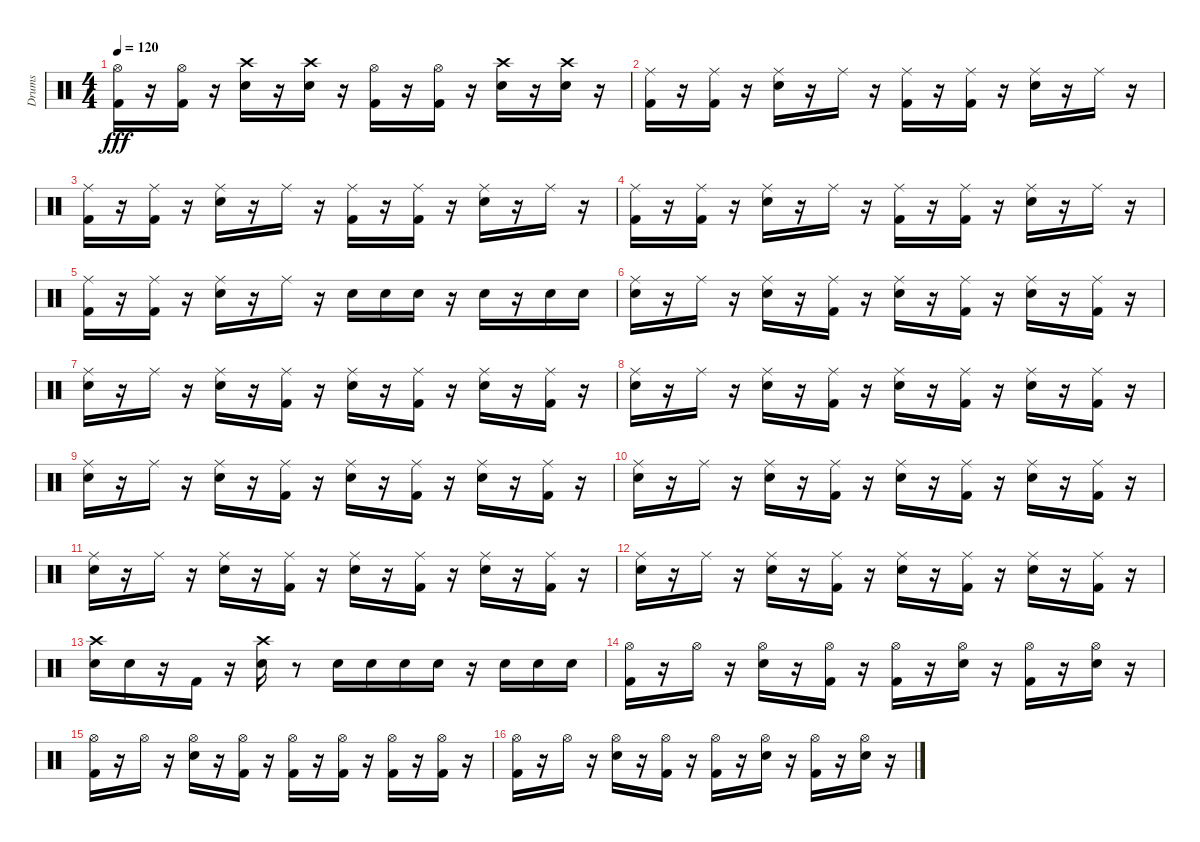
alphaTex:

\track ("Drums" "Drums") {instrument percussion}
\staff {score}
\articulation defaults
\ts (4 4)
\tempo 120
\clef neutral
\ks c
("Kick (hit) 2" "Hi-Hat (open)").16{dy fff} r.16 ("Kick (hit) 2" "Hi-Hat (open)").16 r.16 ("Crash high (hit)" "Snare (hit) 2").16 r.16 ("Crash high (hit)" "Snare (hit) 2").16 r.16 ("Kick (hit) 2" "Hi-Hat (open)").16 r.16 ("Kick (hit) 2" "Hi-Hat (open)").16 r.16 ("Crash high (hit)" "Snare (hit) 2").16 r.16 ("Crash high (hit)" "Snare (hit) 2").16 r.16 |
("Kick (hit) 2" "Ride (middle)").16 r.16 ("Kick (hit) 2" "Ride (middle)").16 r.16 ("Snare (hit) 2" "Ride (middle)").16 r.16 "Ride (middle)".16 r.16 ("Kick (hit) 2" "Ride (middle)").16 r.16 ("Kick (hit) 2" "Ride (middle)").16 r.16 ("Snare (hit) 2" "Ride (middle)").16 r.16 "Ride (middle)".16 r.16 |
("Kick (hit) 2" "Ride (middle)").16 r.16 ("Kick (hit) 2" "Ride (middle)").16 r.16 ("Snare (hit) 2" "Ride (middle)").16 r.16 "Ride (middle)".16 r.16 ("Kick (hit) 2" "Ride (middle)").16 r.16 ("Kick (hit) 2" "Ride (middle)").16 r.16 ("Snare (hit) 2" "Ride (middle)").16 r.16 "Ride (middle)".16 r.16 |
("Kick (hit) 2" "Ride (middle)").16 r.16 ("Kick (hit) 2" "Ride (middle)").16 r.16 ("Snare (hit) 2" "Ride (middle)").16 r.16 "Ride (middle)".16 r.16 ("Kick (hit) 2" "Ride (middle)").16 r.16 ("Kick (hit) 2" "Ride (middle)").16 r.16 ("Snare (hit) 2" "Ride (middle)").16 r.16 "Ride (middle)".16 r.16 |
("Kick (hit) 2" "Ride (middle)").16 r.16 ("Kick (hit) 2" "Ride (middle)").16 r.16 ("Snare (hit) 2" "Ride (middle)").16 r.16 "Ride (middle)".16 r.16 "Snare (hit) 2".16 "Snare (hit) 2".16 "Snare (hit) 2".16 r.16 "Snare (hit) 2".16 r.16 "Snare (hit) 2".16 "Snare (hit) 2".16 |
("Snare (hit) 2" "Ride (middle)").16 r.16 "Ride (middle)".16 r.16 ("Snare (hit) 2" "Ride (middle)").16 r.16 ("Kick (hit) 2" "Ride (middle)").16 r.16 ("Snare (hit) 2" "Ride (middle)").16 r.16 ("Kick (hit) 2" "Ride (middle)").16 r.16 ("Snare (hit) 2" "Ride (middle)").16 r.16 ("Kick (hit) 2" "Ride (middle)").16 r.16 |
("Snare (hit) 2" "Ride (middle)").16 r.16 "Ride (middle)".16 r.16 ("Snare (hit) 2" "Ride (middle)").16 r.16 ("Kick (hit) 2" "Ride (middle)").16 r.16 ("Snare (hit) 2" "Ride (middle)").16 r.16 ("Kick (hit) 2" "Ride (middle)").16 r.16 ("Snare (hit) 2" "Ride (middle)").16 r.16 ("Kick (hit) 2" "Ride (middle)").16 r.16 |
("Snare (hit) 2" "Ride (middle)").16 r.16 "Ride (middle)".16 r.16 ("Snare (hit) 2" "Ride (middle)").16 r.16 ("Kick (hit) 2" "Ride (middle)").16 r.16 ("Snare (hit) 2" "Ride (middle)").16 r.16 ("Kick (hit) 2" "Ride (middle)").16 r.16 ("Snare (hit) 2" "Ride (middle)").16 r.16 ("Kick (hit) 2" "Ride (middle)").16 r.16 |
("Snare (hit) 2" "Ride (middle)").16 r.16 "Ride (middle)".16 r.16 ("Snare (hit) 2" "Ride (middle)").16 r.16 ("Kick (hit) 2" "Ride (middle)").16 r.16 ("Snare (hit) 2" "Ride (middle)").16 r.16 ("Kick (hit) 2" "Ride (middle)").16 r.16 ("Snare (hit) 2" "Ride (middle)").16 r.16 ("Kick (hit) 2" "Ride (middle)").16 r.16 |
("Snare (hit) 2" "Ride (middle)").16 r.16 "Ride (middle)".16 r.16 ("Snare (hit) 2" "Ride (middle)").16 r.16 ("Kick (hit) 2" "Ride (middle)").16 r.16 ("Snare (hit) 2" "Ride (middle)").16 r.16 ("Kick (hit) 2" "Ride (middle)").16 r.16 ("Snare (hit) 2" "Ride (middle)").16 r.16 ("Kick (hit) 2" "Ride (middle)").16 r.16 |
("Snare (hit) 2" "Ride (middle)").16 r.16 "Ride (middle)".16 r.16 ("Snare (hit) 2" "Ride (middle)").16 r.16 ("Kick (hit) 2" "Ride (middle)").16 r.16 ("Snare (hit) 2" "Ride (middle)").16 r.16 ("Kick (hit) 2" "Ride (middle)").16 r.16 ("Snare (hit) 2" "Ride (middle)").16 r.16 ("Kick (hit) 2" "Ride (middle)").16 r.16 |
("Snare (hit) 2" "Ride (middle)").16 r.16 "Ride (middle)".16 r.16 ("Snare (hit) 2" "Ride (middle)").16 r.16 ("Kick (hit) 2" "Ride (middle)").16 r.16 ("Snare (hit) 2" "Ride (middle)").16 r.16 ("Kick (hit) 2" "Ride (middle)").16 r.16 ("Snare (hit) 2" "Ride (middle)").16 r.16 ("Kick (hit) 2" "Ride (middle)").16 r.16 |
("Snare (hit) 2" "Crash high (hit)").16 "Snare (hit) 2".16 r.16 "Kick (hit) 2".16 r.16 ("Snare (hit) 2" "Crash high (hit)").16 r.8 "Snare (hit) 2".16 "Snare (hit) 2".16 "Snare (hit) 2".16 "Snare (hit) 2".16 r.16 "Snare (hit) 2".16 "Snare (hit) 2".16 "Snare (hit) 2".16 |
("Kick (hit) 2" "Hi-Hat (open)").16 r.16 "Hi-Hat (open)".16 r.16 ("Snare (hit) 2" "Hi-Hat (open)").16 r.16 ("Kick (hit) 2" "Hi-Hat (open)").16 r.16 ("Kick (hit) 2" "Hi-Hat (open)").16 r.16 ("Snare (hit) 2" "Hi-Hat (open)").16 r.16 ("Kick (hit) 2" "Hi-Hat (open)").16 r.16 ("Snare (hit) 2" "Hi-Hat (open)").16 r.16 |
("Kick (hit) 2" "Hi-Hat (open)").16 r.16 "Hi-Hat (open)".16 r.16 ("Snare (hit) 2" "Hi-Hat (open)").16 r.16 ("Kick (hit) 2" "Hi-Hat (open)").16 r.16 ("Kick (hit) 2" "Hi-Hat (open)").16 r.16 ("Kick (hit) 2" "Hi-Hat (open)").16 r.16 ("Kick (hit) 2" "Hi-Hat (open)").16 r.16 ("Kick (hit) 2" "Hi-Hat (open)").16 r.16 |
("Kick (hit) 2" "Hi-Hat (open)").16 r.16 "Hi-Hat (open)".16 r.16 ("Snare (hit) 2" "Hi-Hat (open)").16 r.16 ("Kick (hit) 2" "Hi-Hat (open)").16 r.16 ("Kick (hit) 2" "Hi-Hat (open)").16 r.16 ("Snare (hit) 2" "Hi-Hat (open)").16 r.16 ("Kick (hit) 2" "Hi-Hat (open)").16 r.16 ("Snare (hit) 2" "Hi-Hat (open)").16 r.16
